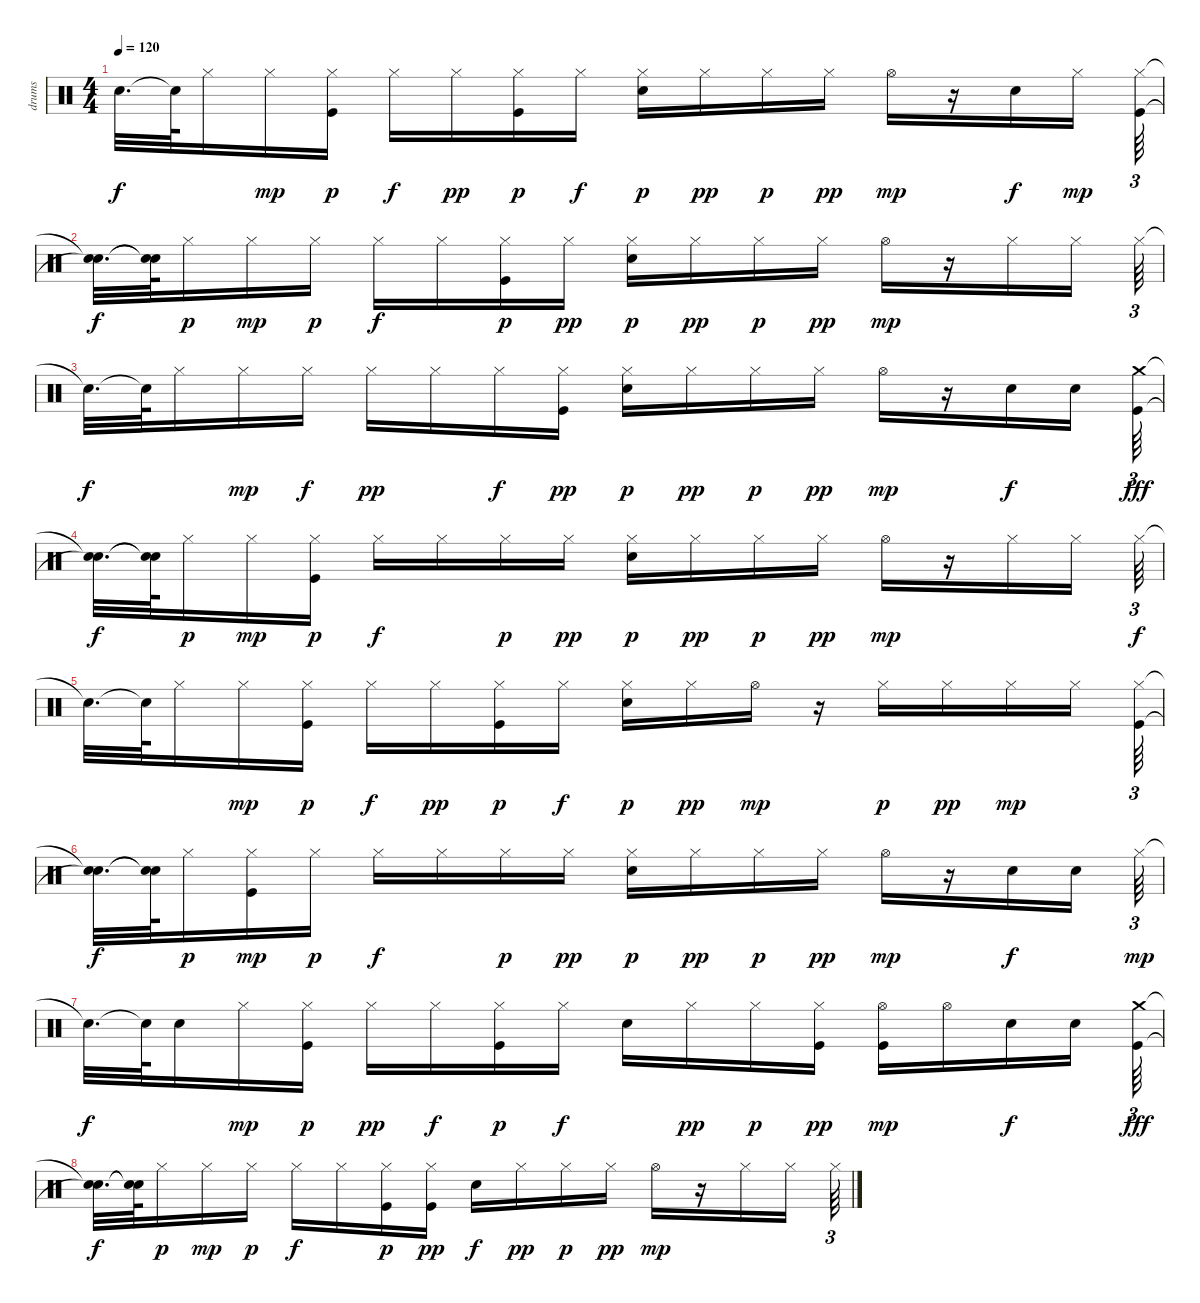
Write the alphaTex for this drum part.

\track ("drums" "drums") {instrument percussion}
\staff {score}
\articulation defaults
\ts (4 4)
\tempo 120
\clef neutral
\ks c "Snare (hit)"{t}.32{d dy f} "Snare (hit)"{t}.64 "Hi-Hat (closed)".16 "Hi-Hat (closed)".16{dy mp}
("Kick (hit)" "Hi-Hat (closed)").16{dy p} "Hi-Hat (closed)".16{dy f} "Hi-Hat (closed)".16{dy pp} ("Kick (hit)" "Hi-Hat (closed)").16{dy p} "Hi-Hat (closed)".16{dy f} ("Snare (hit) 2" "Hi-Hat (closed)").16{dy p} "Hi-Hat (closed)".16{dy pp} "Hi-Hat (closed)".16{dy p} "Hi-Hat (closed)".16{dy pp} "Hi-Hat (open)".16{dy mp} r.16 "Snare (hit) 2".16{dy f} "Hi-Hat (closed)".16{dy mp} ("Kick (hit)" "Hi-Hat (closed)").64{tu (3 2)} |
("Snare (hit)"{t} "Snare (hit)"{t}).32{d dy f} ("Snare (hit)"{t} "Snare (hit)"{t}).64 "Hi-Hat (closed)".16{dy p} "Hi-Hat (closed)".16{dy mp} "Hi-Hat (closed)".16{dy p} "Hi-Hat (closed)".16{dy f} "Hi-Hat (closed)".16 ("Kick (hit)" "Hi-Hat (closed)").16{dy p} "Hi-Hat (closed)".16{dy pp} ("Snare (hit) 2" "Hi-Hat (closed)").16{dy p} "Hi-Hat (closed)".16{dy pp} "Hi-Hat (closed)".16{dy p} "Hi-Hat (closed)".16{dy pp} "Hi-Hat (open)".16{dy mp} r.16 "Hi-Hat (closed)".16 "Hi-Hat (closed)".16 "Hi-Hat (closed)".64{tu (3 2)} |
"Snare (hit)"{t}.32{d dy f} "Snare (hit)"{t}.64 "Hi-Hat (closed)".16 "Hi-Hat (closed)".16{dy mp} "Hi-Hat (closed)".16{dy f} "Hi-Hat (closed)".16{dy pp} "Hi-Hat (closed)".16 "Hi-Hat (closed)".16{dy f} ("Kick (hit)" "Hi-Hat (closed)").16{dy pp} ("Snare (hit) 2" "Hi-Hat (closed)").16{dy p} "Hi-Hat (closed)".16{dy pp} "Hi-Hat (closed)".16{dy p} "Hi-Hat (closed)".16{dy pp} "Hi-Hat (open)".16{dy mp} r.16 "Snare (hit) 2".16{dy f} "Snare (hit) 2".16 ("Kick (hit)" "Crash medium (hit)").64{tu (3 2) dy fff} |
("Snare (hit)"{t} "Snare (hit)"{t}).32{d dy f} ("Snare (hit)"{t} "Snare (hit)"{t}).64 "Hi-Hat (closed)".16{dy p} "Hi-Hat (closed)".16{dy mp} ("Kick (hit)" "Hi-Hat (closed)").16{dy p} "Hi-Hat (closed)".16{dy f} "Hi-Hat (closed)".16 "Hi-Hat (closed)".16{dy p} "Hi-Hat (closed)".16{dy pp} ("Snare (hit) 2" "Hi-Hat (closed)").16{dy p} "Hi-Hat (closed)".16{dy pp} "Hi-Hat (closed)".16{dy p} "Hi-Hat (closed)".16{dy pp} "Hi-Hat (open)".16{dy mp} r.16 "Hi-Hat (closed)".16 "Hi-Hat (closed)".16 "Hi-Hat (closed)".64{tu (3 2) dy f} |
"Snare (hit)"{t}.32{d} "Snare (hit)"{t}.64 "Hi-Hat (closed)".16 "Hi-Hat (closed)".16{dy mp} ("Kick (hit)" "Hi-Hat (closed)").16{dy p} "Hi-Hat (closed)".16{dy f} "Hi-Hat (closed)".16{dy pp} ("Kick (hit)" "Hi-Hat (closed)").16{dy p} "Hi-Hat (closed)".16{dy f} ("Snare (hit) 2" "Hi-Hat (closed)").16{dy p} "Hi-Hat (closed)".16{dy pp} "Hi-Hat (open)".16{dy mp} r.16 "Hi-Hat (closed)".16{dy p} "Hi-Hat (closed)".16{dy pp} "Hi-Hat (closed)".16{dy mp} "Hi-Hat (closed)".16 ("Kick (hit)" "Hi-Hat (closed)").64{tu (3 2)} |
("Snare (hit)"{t} "Snare (hit)"{t}).32{d dy f} ("Snare (hit)"{t} "Snare (hit)"{t}).64 "Hi-Hat (closed)".16{dy p} ("Kick (hit)" "Hi-Hat (closed)").16{dy mp} "Hi-Hat (closed)".16{dy p} "Hi-Hat (closed)".16{dy f} "Hi-Hat (closed)".16 "Hi-Hat (closed)".16{dy p} "Hi-Hat (closed)".16{dy pp} ("Snare (hit) 2" "Hi-Hat (closed)").16{dy p} "Hi-Hat (closed)".16{dy pp} "Hi-Hat (closed)".16{dy p} "Hi-Hat (closed)".16{dy pp} "Hi-Hat (open)".16{dy mp} r.16 "Snare (hit) 2".16{dy f} "Snare (hit) 2".16 "Hi-Hat (closed)".64{tu (3 2) dy mp} |
"Snare (hit)"{t}.32{d dy f} "Snare (hit)"{t}.64 "Snare (hit) 2".16 "Hi-Hat (closed)".16{dy mp} ("Kick (hit)" "Hi-Hat (closed)").16{dy p} "Hi-Hat (closed)".16{dy pp} "Hi-Hat (closed)".16{dy f} ("Kick (hit)" "Hi-Hat (closed)").16{dy p} "Hi-Hat (closed)".16{dy f} "Snare (hit) 2".16 "Hi-Hat (closed)".16{dy pp} "Hi-Hat (closed)".16{dy p} ("Kick (hit)" "Hi-Hat (closed)").16{dy pp} ("Kick (hit)" "Hi-Hat (open)").16{dy mp} "Hi-Hat (open)".16 "Snare (hit) 2".16{dy f} "Snare (hit) 2".16 ("Kick (hit)" "Crash medium (hit)").64{tu (3 2) dy fff} |
("Snare (hit)"{t} "Snare (hit)"{t}).32{d dy f} ("Snare (hit)"{t} "Snare (hit)"{t}).64 "Hi-Hat (closed)".16{dy p} "Hi-Hat (closed)".16{dy mp} "Hi-Hat (closed)".16{dy p} "Hi-Hat (closed)".16{dy f} "Hi-Hat (closed)".16 ("Kick (hit)" "Hi-Hat (closed)").16{dy p} ("Kick (hit)" "Hi-Hat (closed)").16{dy pp} "Snare (hit) 2".16{dy f} "Hi-Hat (closed)".16{dy pp} "Hi-Hat (closed)".16{dy p} "Hi-Hat (closed)".16{dy pp} "Hi-Hat (open)".16{dy mp} r.16 "Hi-Hat (closed)".16 "Hi-Hat (closed)".16 "Hi-Hat (closed)".64{tu (3 2)}
